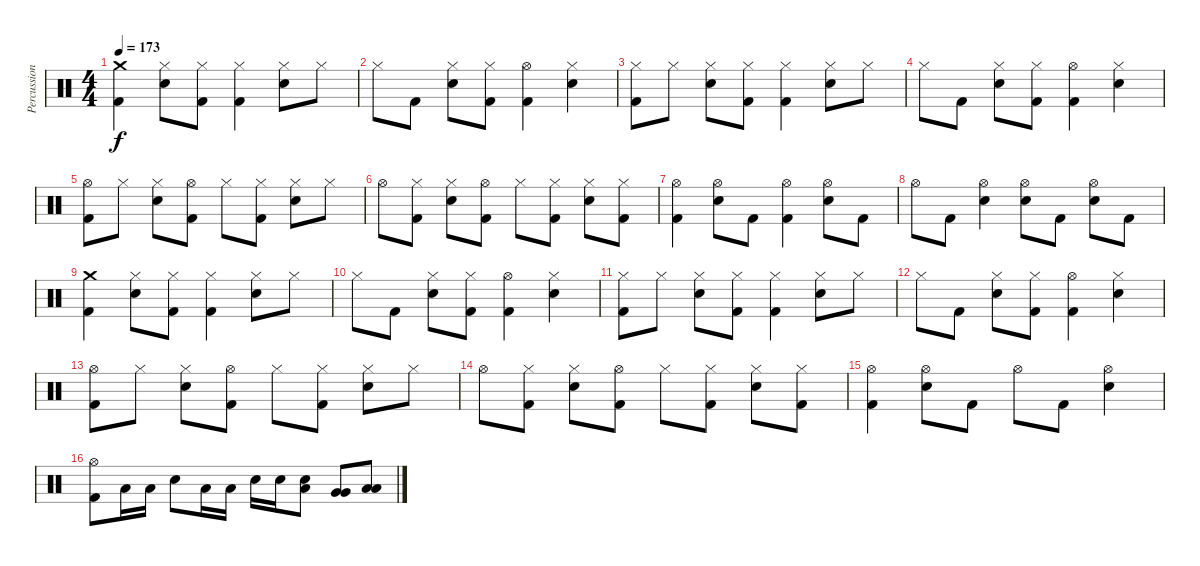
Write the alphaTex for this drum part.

\track ("Percussion" "Percussion") {instrument percussion}
\staff {score}
\articulation defaults
\ts (4 4)
\tempo 173
\clef neutral
\ks c
("Crash medium (hit)" "Kick (hit) 2").4{dy f} ("Hi-Hat (closed)" "Electric Snare (hit)").8 ("Hi-Hat (closed)" "Kick (hit) 2").8 ("Hi-Hat (closed)" "Kick (hit) 2").4 ("Hi-Hat (closed)" "Electric Snare (hit)").8 "Hi-Hat (closed)".8 |
"Hi-Hat (closed)".8 "Kick (hit) 2".8 ("Hi-Hat (closed)" "Electric Snare (hit)").8 ("Hi-Hat (closed)" "Kick (hit) 2").8 ("Hi-Hat (open)" "Kick (hit) 2").4 ("Hi-Hat (closed)" "Electric Snare (hit)").4 |
("Hi-Hat (closed)" "Kick (hit) 2").8 "Hi-Hat (closed)".8 ("Hi-Hat (closed)" "Electric Snare (hit)").8 ("Hi-Hat (closed)" "Kick (hit) 2").8 ("Hi-Hat (closed)" "Kick (hit) 2").4 ("Hi-Hat (closed)" "Electric Snare (hit)").8 "Hi-Hat (closed)".8 |
"Hi-Hat (closed)".8 "Kick (hit) 2".8 ("Hi-Hat (closed)" "Electric Snare (hit)").8 ("Hi-Hat (closed)" "Kick (hit) 2").8 ("Hi-Hat (open)" "Kick (hit) 2").4 ("Hi-Hat (closed)" "Electric Snare (hit)").4 |
("Hi-Hat (open)" "Kick (hit) 2").8 "Hi-Hat (closed)".8 ("Hi-Hat (closed)" "Electric Snare (hit)").8 ("Hi-Hat (open)" "Kick (hit) 2").8 "Hi-Hat (closed)".8 ("Hi-Hat (closed)" "Kick (hit) 2").8 ("Hi-Hat (closed)" "Electric Snare (hit)").8 "Hi-Hat (closed)".8 |
"Hi-Hat (open)".8 ("Hi-Hat (closed)" "Kick (hit) 2").8 ("Hi-Hat (closed)" "Electric Snare (hit)").8 ("Hi-Hat (open)" "Kick (hit) 2").8 "Hi-Hat (closed)".8 ("Hi-Hat (closed)" "Kick (hit) 2").8 ("Hi-Hat (closed)" "Electric Snare (hit)").8 ("Hi-Hat (closed)" "Kick (hit) 2").8 |
("Hi-Hat (open)" "Kick (hit) 2").4 ("Hi-Hat (open)" "Electric Snare (hit)").8 "Kick (hit) 2".8 ("Hi-Hat (open)" "Kick (hit) 2").4 ("Hi-Hat (open)" "Electric Snare (hit)").8 "Kick (hit) 2".8 |
"Hi-Hat (open)".8 "Kick (hit) 2".8 ("Hi-Hat (open)" "Electric Snare (hit)").4 ("Hi-Hat (open)" "Electric Snare (hit)").8 "Kick (hit) 2".8 ("Hi-Hat (open)" "Electric Snare (hit)").8 "Kick (hit) 2".8 |
("Crash medium (hit)" "Kick (hit) 2").4 ("Hi-Hat (closed)" "Electric Snare (hit)").8 ("Hi-Hat (closed)" "Kick (hit) 2").8 ("Hi-Hat (closed)" "Kick (hit) 2").4 ("Hi-Hat (closed)" "Electric Snare (hit)").8 "Hi-Hat (closed)".8 |
"Hi-Hat (closed)".8 "Kick (hit) 2".8 ("Hi-Hat (closed)" "Electric Snare (hit)").8 ("Hi-Hat (closed)" "Kick (hit) 2").8 ("Hi-Hat (open)" "Kick (hit) 2").4 ("Hi-Hat (closed)" "Electric Snare (hit)").4 |
("Hi-Hat (closed)" "Kick (hit) 2").8 "Hi-Hat (closed)".8 ("Hi-Hat (closed)" "Electric Snare (hit)").8 ("Hi-Hat (closed)" "Kick (hit) 2").8 ("Hi-Hat (closed)" "Kick (hit) 2").4 ("Hi-Hat (closed)" "Electric Snare (hit)").8 "Hi-Hat (closed)".8 |
"Hi-Hat (closed)".8 "Kick (hit) 2".8 ("Hi-Hat (closed)" "Electric Snare (hit)").8 ("Hi-Hat (closed)" "Kick (hit) 2").8 ("Hi-Hat (open)" "Kick (hit) 2").4 ("Hi-Hat (closed)" "Electric Snare (hit)").4 |
("Hi-Hat (open)" "Kick (hit) 2").8 "Hi-Hat (closed)".8 ("Hi-Hat (closed)" "Electric Snare (hit)").8 ("Hi-Hat (open)" "Kick (hit) 2").8 "Hi-Hat (closed)".8 ("Hi-Hat (closed)" "Kick (hit) 2").8 ("Hi-Hat (closed)" "Electric Snare (hit)").8 "Hi-Hat (closed)".8 |
"Hi-Hat (open)".8 ("Hi-Hat (closed)" "Kick (hit) 2").8 ("Hi-Hat (closed)" "Electric Snare (hit)").8 ("Hi-Hat (open)" "Kick (hit) 2").8 "Hi-Hat (closed)".8 ("Hi-Hat (closed)" "Kick (hit) 2").8 ("Hi-Hat (closed)" "Electric Snare (hit)").8 ("Hi-Hat (closed)" "Kick (hit) 2").8 |
("Hi-Hat (open)" "Kick (hit) 2").4 ("Hi-Hat (open)" "Electric Snare (hit)").8 "Kick (hit) 2".8 "Hi-Hat (open)".8 "Kick (hit) 2".8 ("Hi-Hat (open)" "Electric Snare (hit)").4 |
("Hi-Hat (open)" "Kick (hit) 2").8 "Low Tom (hit)".16 "Low Tom (hit)".16 "Electric Snare (hit)".8 "Low Tom (hit)".16 "Low Tom (hit)".16 "Electric Snare (hit)".16 "Electric Snare (hit)".16 ("Low Tom (hit)" "Electric Snare (hit)").8 ("Very Low Tom (hit)" "Very Low Tom (hit)").8 ("Low Floor Tom (hit)" "Low Floor Tom (hit)").8
